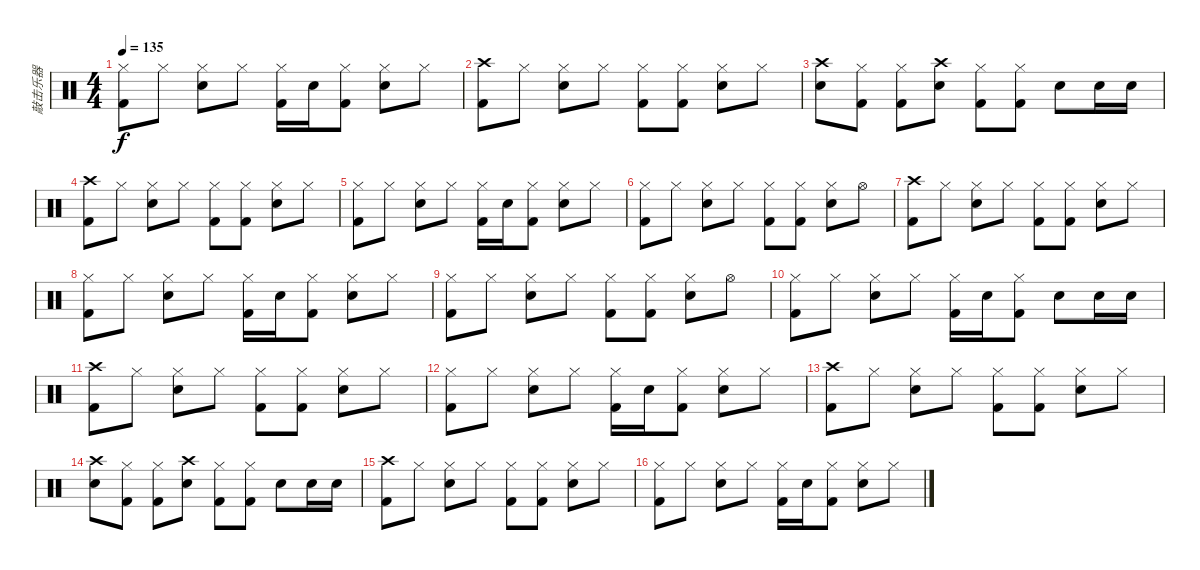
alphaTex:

\track ("敲击乐器" "敲击乐器") {instrument percussion}
\staff {score}
\articulation defaults
\ts (4 4)
\tempo 135
\clef neutral
\ks c
("Hi-Hat (closed)" "Kick (hit) 2").8{dy f} "Hi-Hat (closed)".8 ("Hi-Hat (closed)" "Electric Snare (hit)").8 "Hi-Hat (closed)".8 ("Hi-Hat (closed)" "Kick (hit) 2").16 "Electric Snare (hit)".16 ("Hi-Hat (closed)" "Kick (hit) 2").8 ("Hi-Hat (closed)" "Electric Snare (hit)").8 "Hi-Hat (closed)".8 |
("Crash high (hit)" "Kick (hit) 2").8 "Hi-Hat (closed)".8 ("Hi-Hat (closed)" "Electric Snare (hit)").8 "Hi-Hat (closed)".8 ("Hi-Hat (closed)" "Kick (hit) 2").8 ("Hi-Hat (closed)" "Kick (hit) 2").8 ("Hi-Hat (closed)" "Electric Snare (hit)").8 "Hi-Hat (closed)".8 |
("Crash high (hit)" "Electric Snare (hit)").8 ("Hi-Hat (closed)" "Kick (hit) 2").8 ("Hi-Hat (closed)" "Kick (hit) 2").8 ("Crash high (hit)" "Electric Snare (hit)").8 ("Hi-Hat (closed)" "Kick (hit) 2").8 ("Hi-Hat (closed)" "Kick (hit) 2").8 "Electric Snare (hit)".8 "Electric Snare (hit)".16 "Electric Snare (hit)".16 |
("Crash high (hit)" "Kick (hit) 2").8 "Hi-Hat (closed)".8 ("Hi-Hat (closed)" "Electric Snare (hit)").8 "Hi-Hat (closed)".8 ("Hi-Hat (closed)" "Kick (hit) 2").8 ("Hi-Hat (closed)" "Kick (hit) 2").8 ("Hi-Hat (closed)" "Electric Snare (hit)").8 "Hi-Hat (closed)".8 |
("Hi-Hat (closed)" "Kick (hit) 2").8 "Hi-Hat (closed)".8 ("Hi-Hat (closed)" "Electric Snare (hit)").8 "Hi-Hat (closed)".8 ("Hi-Hat (closed)" "Kick (hit) 2").16 "Electric Snare (hit)".16 ("Hi-Hat (closed)" "Kick (hit) 2").8 ("Hi-Hat (closed)" "Electric Snare (hit)").8 "Hi-Hat (closed)".8 |
("Hi-Hat (closed)" "Kick (hit) 2").8 "Hi-Hat (closed)".8 ("Hi-Hat (closed)" "Electric Snare (hit)").8 "Hi-Hat (closed)".8 ("Hi-Hat (closed)" "Kick (hit) 2").8 ("Hi-Hat (closed)" "Kick (hit) 2").8 ("Hi-Hat (closed)" "Electric Snare (hit)").8 "Hi-Hat (open)".8 |
("Crash high (hit)" "Kick (hit) 2").8 "Hi-Hat (closed)".8 ("Hi-Hat (closed)" "Electric Snare (hit)").8 "Hi-Hat (closed)".8 ("Hi-Hat (closed)" "Kick (hit) 2").8 ("Hi-Hat (closed)" "Kick (hit) 2").8 ("Hi-Hat (closed)" "Electric Snare (hit)").8 "Hi-Hat (closed)".8 |
("Hi-Hat (closed)" "Kick (hit) 2").8 "Hi-Hat (closed)".8 ("Hi-Hat (closed)" "Electric Snare (hit)").8 "Hi-Hat (closed)".8 ("Hi-Hat (closed)" "Kick (hit) 2").16 "Electric Snare (hit)".16 ("Hi-Hat (closed)" "Kick (hit) 2").8 ("Hi-Hat (closed)" "Electric Snare (hit)").8 "Hi-Hat (closed)".8 |
("Hi-Hat (closed)" "Kick (hit) 2").8 "Hi-Hat (closed)".8 ("Hi-Hat (closed)" "Electric Snare (hit)").8 "Hi-Hat (closed)".8 ("Hi-Hat (closed)" "Kick (hit) 2").8 ("Hi-Hat (closed)" "Kick (hit) 2").8 ("Hi-Hat (closed)" "Electric Snare (hit)").8 "Hi-Hat (open)".8 |
("Hi-Hat (closed)" "Kick (hit) 2").8 "Hi-Hat (closed)".8 ("Hi-Hat (closed)" "Electric Snare (hit)").8 "Hi-Hat (closed)".8 ("Hi-Hat (closed)" "Kick (hit) 2").16 "Electric Snare (hit)".16 ("Hi-Hat (closed)" "Kick (hit) 2").8 "Electric Snare (hit)".8 "Electric Snare (hit)".16 "Electric Snare (hit)".16 |
("Crash high (hit)" "Kick (hit) 2").8 "Hi-Hat (closed)".8 ("Hi-Hat (closed)" "Electric Snare (hit)").8 "Hi-Hat (closed)".8 ("Hi-Hat (closed)" "Kick (hit) 2").8 ("Hi-Hat (closed)" "Kick (hit) 2").8 ("Hi-Hat (closed)" "Electric Snare (hit)").8 "Hi-Hat (closed)".8 |
("Hi-Hat (closed)" "Kick (hit) 2").8 "Hi-Hat (closed)".8 ("Hi-Hat (closed)" "Electric Snare (hit)").8 "Hi-Hat (closed)".8 ("Hi-Hat (closed)" "Kick (hit) 2").16 "Electric Snare (hit)".16 ("Hi-Hat (closed)" "Kick (hit) 2").8 ("Hi-Hat (closed)" "Electric Snare (hit)").8 "Hi-Hat (closed)".8 |
("Crash high (hit)" "Kick (hit) 2").8 "Hi-Hat (closed)".8 ("Hi-Hat (closed)" "Electric Snare (hit)").8 "Hi-Hat (closed)".8 ("Hi-Hat (closed)" "Kick (hit) 2").8 ("Hi-Hat (closed)" "Kick (hit) 2").8 ("Hi-Hat (closed)" "Electric Snare (hit)").8 "Hi-Hat (closed)".8 |
("Crash high (hit)" "Electric Snare (hit)").8 ("Hi-Hat (closed)" "Kick (hit) 2").8 ("Hi-Hat (closed)" "Kick (hit) 2").8 ("Crash high (hit)" "Electric Snare (hit)").8 ("Hi-Hat (closed)" "Kick (hit) 2").8 ("Hi-Hat (closed)" "Kick (hit) 2").8 "Electric Snare (hit)".8 "Electric Snare (hit)".16 "Electric Snare (hit)".16 |
("Crash high (hit)" "Kick (hit) 2").8 "Hi-Hat (closed)".8 ("Hi-Hat (closed)" "Electric Snare (hit)").8 "Hi-Hat (closed)".8 ("Hi-Hat (closed)" "Kick (hit) 2").8 ("Hi-Hat (closed)" "Kick (hit) 2").8 ("Hi-Hat (closed)" "Electric Snare (hit)").8 "Hi-Hat (closed)".8 |
("Hi-Hat (closed)" "Kick (hit) 2").8 "Hi-Hat (closed)".8 ("Hi-Hat (closed)" "Electric Snare (hit)").8 "Hi-Hat (closed)".8 ("Hi-Hat (closed)" "Kick (hit) 2").16 "Electric Snare (hit)".16 ("Hi-Hat (closed)" "Kick (hit) 2").8 ("Hi-Hat (closed)" "Electric Snare (hit)").8 "Hi-Hat (closed)".8
